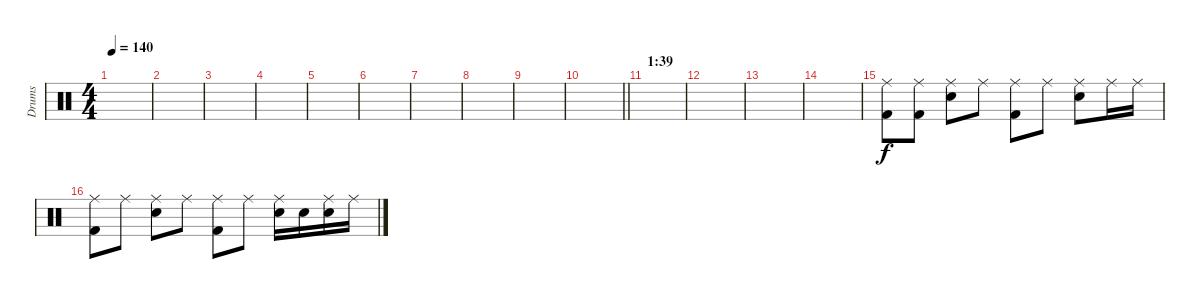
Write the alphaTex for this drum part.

\track ("Drums" "Drums") {instrument percussion}
\staff {score}
\articulation defaults
\ts (4 4)
\tempo 140
\clef neutral
\ks c
|
|
|
|
|
|
|
|
|
\barLineRight lightlight
|
\section ("" "1:39")
|
|
|
|
("Ride (middle)" "Kick (hit) 2").8 ("Ride (middle)" "Kick (hit) 2").8 ("Ride (middle)" "Electric Snare (hit)").8 "Ride (middle)".8 ("Ride (middle)" "Kick (hit) 2").8 "Ride (middle)".8 ("Ride (middle)" "Electric Snare (hit)").8 "Ride (middle)".16 "Ride (middle)".16 |
("Ride (middle)" "Kick (hit) 2").8 "Ride (middle)".8 ("Ride (middle)" "Electric Snare (hit)").8 "Ride (middle)".8 ("Ride (middle)" "Kick (hit) 2").8 "Ride (middle)".8 ("Ride (middle)" "Electric Snare (hit)").16 "Electric Snare (hit)".16 ("Ride (middle)" "Electric Snare (hit)").16 "Ride (middle)".16
